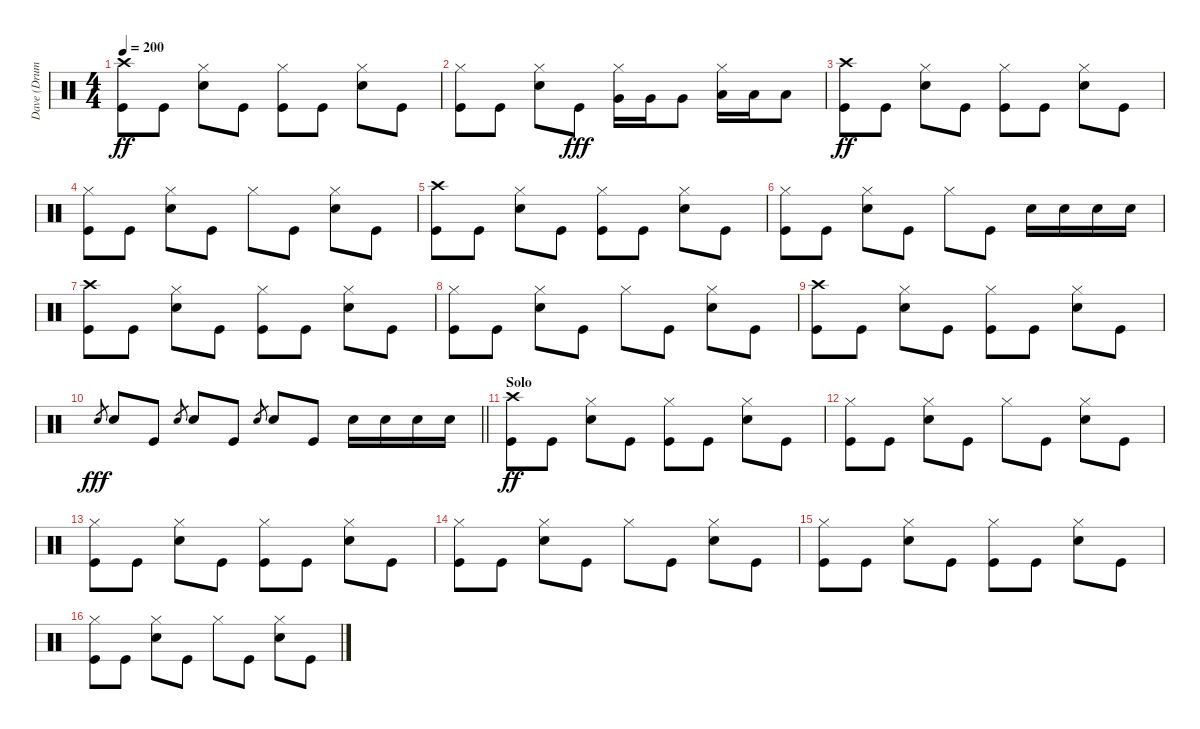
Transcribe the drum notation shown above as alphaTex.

\track ("Dave (Drums)" "Dave (Drum") {instrument percussion}
\staff {score}
\articulation defaults
\ts (4 4)
\tempo 200
\clef neutral
\ks c
("Crash high (hit)" "Kick (hit)").8{dy ff} "Kick (hit)".8 ("Hi-Hat (closed)" "Snare (hit) 2").8 "Kick (hit)".8 ("Hi-Hat (closed)" "Kick (hit)").8 "Kick (hit)".8 ("Hi-Hat (closed)" "Snare (hit) 2").8 "Kick (hit)".8 |
("Hi-Hat (closed)" "Kick (hit)").8 "Kick (hit)".8 ("Hi-Hat (closed)" "Snare (hit) 2").8 "Kick (hit)".8{dy fff} ("Hi-Hat (closed)" "Very Low Tom (hit)").16 "Very Low Tom (hit)".16 "Very Low Tom (hit)".8 ("Hi-Hat (closed)" "Low Floor Tom (hit)").16 "Low Floor Tom (hit)".16 "Low Floor Tom (hit)".8 |
("Crash high (hit)" "Kick (hit)").8{dy ff} "Kick (hit)".8 ("Hi-Hat (closed)" "Snare (hit) 2").8 "Kick (hit)".8 ("Hi-Hat (closed)" "Kick (hit)").8 "Kick (hit)".8 ("Hi-Hat (closed)" "Snare (hit) 2").8 "Kick (hit)".8 |
("Hi-Hat (closed)" "Kick (hit)").8 "Kick (hit)".8 ("Hi-Hat (closed)" "Snare (hit) 2").8 "Kick (hit)".8 "Hi-Hat (closed)".8 "Kick (hit)".8 ("Hi-Hat (closed)" "Snare (hit) 2").8 "Kick (hit)".8 |
("Crash high (hit)" "Kick (hit)").8 "Kick (hit)".8 ("Hi-Hat (closed)" "Snare (hit) 2").8 "Kick (hit)".8 ("Hi-Hat (closed)" "Kick (hit)").8 "Kick (hit)".8 ("Hi-Hat (closed)" "Snare (hit) 2").8 "Kick (hit)".8 |
("Hi-Hat (closed)" "Kick (hit)").8 "Kick (hit)".8 ("Hi-Hat (closed)" "Snare (hit) 2").8 "Kick (hit)".8 "Hi-Hat (closed)".8 "Kick (hit)".8 "Snare (hit) 2".16 "Snare (hit) 2".16 "Snare (hit) 2".16 "Snare (hit) 2".16 |
("Crash high (hit)" "Kick (hit)").8 "Kick (hit)".8 ("Hi-Hat (closed)" "Snare (hit) 2").8 "Kick (hit)".8 ("Hi-Hat (closed)" "Kick (hit)").8 "Kick (hit)".8 ("Hi-Hat (closed)" "Snare (hit) 2").8 "Kick (hit)".8 |
("Hi-Hat (closed)" "Kick (hit)").8 "Kick (hit)".8 ("Hi-Hat (closed)" "Snare (hit) 2").8 "Kick (hit)".8 "Hi-Hat (closed)".8 "Kick (hit)".8 ("Hi-Hat (closed)" "Snare (hit) 2").8 "Kick (hit)".8 |
("Crash high (hit)" "Kick (hit)").8 "Kick (hit)".8 ("Hi-Hat (closed)" "Snare (hit) 2").8 "Kick (hit)".8 ("Hi-Hat (closed)" "Kick (hit)").8 "Kick (hit)".8 ("Hi-Hat (closed)" "Snare (hit) 2").8 "Kick (hit)".8 |
\barLineRight lightlight "Snare (hit) 2".8{gr dy fff} "Snare (hit) 2".8 "Kick (hit)".8 "Snare (hit) 2".8{gr} "Snare (hit) 2".8 "Kick (hit)".8 "Snare (hit) 2".8{gr} "Snare (hit) 2".8 "Kick (hit)".8 "Snare (hit) 2".16 "Snare (hit) 2".16 "Snare (hit) 2".16 "Snare (hit) 2".16
|
\section ("" "Solo")
("Crash high (hit)" "Kick (hit)").8{dy ff} "Kick (hit)".8 ("Hi-Hat (closed)" "Snare (hit) 2").8 "Kick (hit)".8 ("Hi-Hat (closed)" "Kick (hit)").8 "Kick (hit)".8 ("Hi-Hat (closed)" "Snare (hit) 2").8 "Kick (hit)".8 |
("Hi-Hat (closed)" "Kick (hit)").8 "Kick (hit)".8 ("Hi-Hat (closed)" "Snare (hit) 2").8 "Kick (hit)".8 "Hi-Hat (closed)".8 "Kick (hit)".8 ("Hi-Hat (closed)" "Snare (hit) 2").8 "Kick (hit)".8 |
("Hi-Hat (closed)" "Kick (hit)").8 "Kick (hit)".8 ("Hi-Hat (closed)" "Snare (hit) 2").8 "Kick (hit)".8 ("Hi-Hat (closed)" "Kick (hit)").8 "Kick (hit)".8 ("Hi-Hat (closed)" "Snare (hit) 2").8 "Kick (hit)".8 |
("Hi-Hat (closed)" "Kick (hit)").8 "Kick (hit)".8 ("Hi-Hat (closed)" "Snare (hit) 2").8 "Kick (hit)".8 "Hi-Hat (closed)".8 "Kick (hit)".8 ("Hi-Hat (closed)" "Snare (hit) 2").8 "Kick (hit)".8 |
("Hi-Hat (closed)" "Kick (hit)").8 "Kick (hit)".8 ("Hi-Hat (closed)" "Snare (hit) 2").8 "Kick (hit)".8 ("Hi-Hat (closed)" "Kick (hit)").8 "Kick (hit)".8 ("Hi-Hat (closed)" "Snare (hit) 2").8 "Kick (hit)".8 |
("Hi-Hat (closed)" "Kick (hit)").8 "Kick (hit)".8 ("Hi-Hat (closed)" "Snare (hit) 2").8 "Kick (hit)".8 "Hi-Hat (closed)".8 "Kick (hit)".8 ("Hi-Hat (closed)" "Snare (hit) 2").8 "Kick (hit)".8
